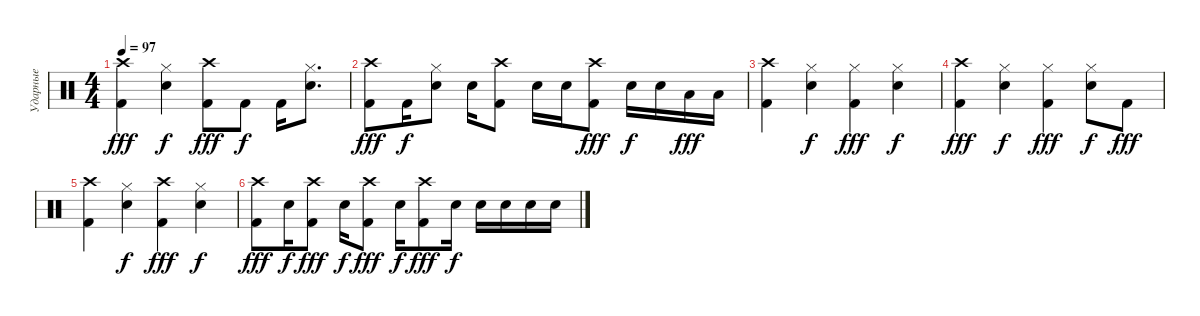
\track ("Ударные" "Ударные") {instrument percussion}
\staff {score}
\articulation defaults
\ts (4 4)
\tempo 97
\clef neutral
\ks c
("Kick (hit) 2" "Crash high (hit)").4{dy fff} ("Snare (hit) 2" "Hi-Hat (closed)").4{dy f} ("Kick (hit) 2" "Crash high (hit)").8{dy fff} "Kick (hit) 2".8{dy f} "Kick (hit) 2".16 ("Snare (hit) 2" "Hi-Hat (closed)").8{d} |
("Kick (hit) 2" "Crash high (hit)").8{dy fff} "Kick (hit) 2".16{dy f} ("Snare (hit) 2" "Hi-Hat (closed)").8 "Snare (hit) 2".16 ("Kick (hit) 2" "Crash high (hit)").8 "Snare (hit) 2".16 "Snare (hit) 2".16 ("Kick (hit) 2" "Crash high (hit)").8{dy fff} "Snare (hit) 2".16{dy f} "Snare (hit) 2".16 "Low Tom (hit)".16{dy fff} "Low Tom (hit)".16 |
("Kick (hit) 2" "Crash high (hit)").4 ("Snare (hit) 2" "Hi-Hat (closed)").4{dy f} ("Kick (hit) 2" "Hi-Hat (closed)").4{dy fff} ("Snare (hit) 2" "Hi-Hat (closed)").4{dy f} |
("Kick (hit) 2" "Crash high (hit)").4{dy fff} ("Snare (hit) 2" "Hi-Hat (closed)").4{dy f} ("Kick (hit) 2" "Hi-Hat (closed)").4{dy fff} ("Snare (hit) 2" "Hi-Hat (closed)").8{dy f} "Kick (hit) 2".8{dy fff} |
("Kick (hit) 2" "Crash high (hit)").4 ("Snare (hit) 2" "Hi-Hat (closed)").4{dy f} ("Kick (hit) 2" "Crash high (hit)").4{dy fff} ("Snare (hit) 2" "Hi-Hat (closed)").4{dy f} |
("Kick (hit) 2" "Crash high (hit)").8{dy fff} "Snare (hit) 2".16{dy f} ("Kick (hit) 2" "Crash high (hit)").8{dy fff} "Snare (hit) 2".16{dy f} ("Kick (hit) 2" "Crash high (hit)").8{dy fff} "Snare (hit) 2".16{dy f} ("Kick (hit) 2" "Crash high (hit)").8{dy fff} "Electric Snare (hit)".16{dy f} "Snare (hit) 2".16 "Snare (hit) 2".16 "Snare (hit) 2".16 "Snare (hit) 2".16
